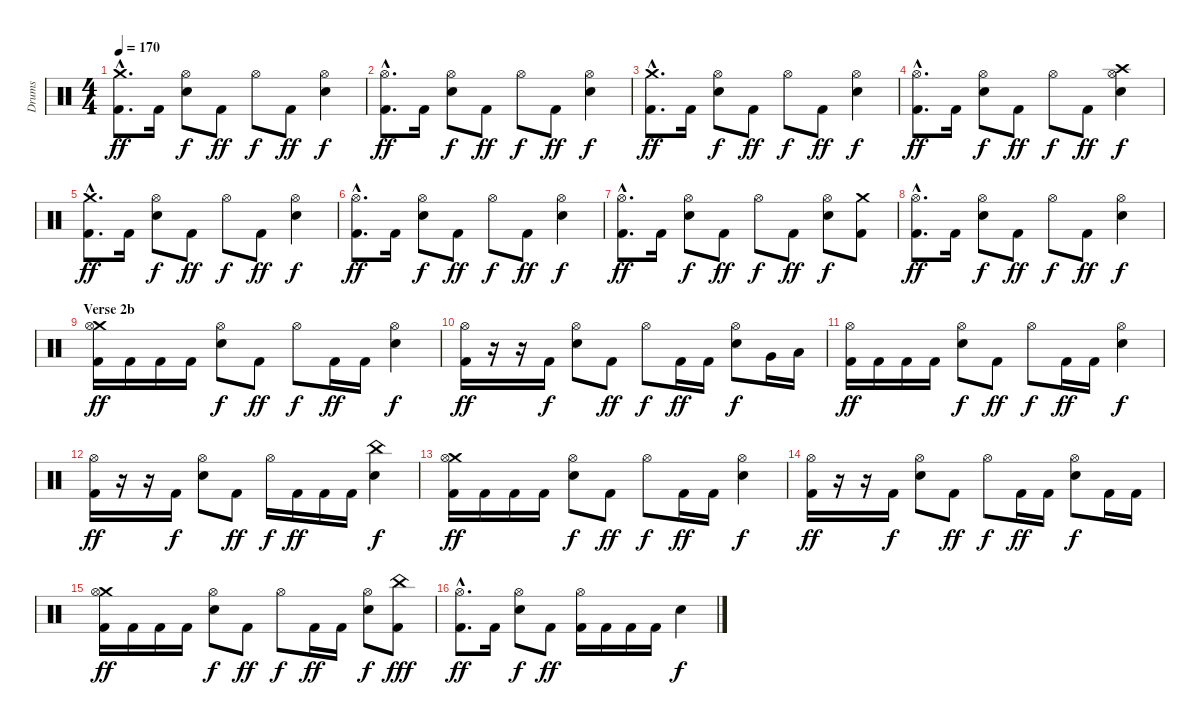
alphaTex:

\track ("Drums" "Drums") {instrument percussion}
\staff {score}
\articulation defaults
\ts (4 4)
\tempo 170
\clef neutral
\ks c
("Crash medium (hit)"{hac} "Kick (hit) 2"{hac}).8{d dy ff} "Kick (hit) 2".16 ("Hi-Hat (open)" "Snare (hit) 2").8{dy f} "Kick (hit) 2".8{dy ff} "Hi-Hat (open)".8{dy f} "Kick (hit) 2".8{dy ff} ("Hi-Hat (open)" "Snare (hit) 2").4{dy f} |
("Hi-Hat (open)"{hac} "Kick (hit) 2"{hac}).8{d dy ff} "Kick (hit) 2".16 ("Hi-Hat (open)" "Snare (hit) 2").8{dy f} "Kick (hit) 2".8{dy ff} "Hi-Hat (open)".8{dy f} "Kick (hit) 2".8{dy ff} ("Hi-Hat (open)" "Snare (hit) 2").4{dy f} |
("Crash medium (hit)"{hac} "Kick (hit) 2"{hac}).8{d dy ff} "Kick (hit) 2".16 ("Hi-Hat (open)" "Snare (hit) 2").8{dy f} "Kick (hit) 2".8{dy ff} "Hi-Hat (open)".8{dy f} "Kick (hit) 2".8{dy ff} ("Hi-Hat (open)" "Snare (hit) 2").4{dy f} |
("Hi-Hat (open)"{hac} "Kick (hit) 2"{hac}).8{d dy ff} "Kick (hit) 2".16 ("Hi-Hat (open)" "Snare (hit) 2").8{dy f} "Kick (hit) 2".8{dy ff} "Hi-Hat (open)".8{dy f} "Kick (hit) 2".8{dy ff} ("Crash high (hit)" "Hi-Hat (open)" "Snare (hit) 2").4{dy f} |
("Crash medium (hit)"{hac} "Kick (hit) 2"{hac}).8{d dy ff} "Kick (hit) 2".16 ("Hi-Hat (open)" "Snare (hit) 2").8{dy f} "Kick (hit) 2".8{dy ff} "Hi-Hat (open)".8{dy f} "Kick (hit) 2".8{dy ff} ("Hi-Hat (open)" "Snare (hit) 2").4{dy f} |
("Hi-Hat (open)"{hac} "Kick (hit) 2"{hac}).8{d dy ff} "Kick (hit) 2".16 ("Hi-Hat (open)" "Snare (hit) 2").8{dy f} "Kick (hit) 2".8{dy ff} "Hi-Hat (open)".8{dy f} "Kick (hit) 2".8{dy ff} ("Hi-Hat (open)" "Snare (hit) 2").4{dy f} |
("Hi-Hat (open)"{hac} "Kick (hit) 2"{hac}).8{d dy ff} "Kick (hit) 2".16 ("Hi-Hat (open)" "Snare (hit) 2").8{dy f} "Kick (hit) 2".8{dy ff} "Hi-Hat (open)".8{dy f} "Kick (hit) 2".8{dy ff} ("Hi-Hat (open)" "Snare (hit) 2").8{dy f} ("Crash medium (hit)" "Kick (hit) 2").8 |
("Hi-Hat (open)"{hac} "Kick (hit) 2"{hac}).8{d dy ff} "Kick (hit) 2".16 ("Hi-Hat (open)" "Snare (hit) 2").8{dy f} "Kick (hit) 2".8{dy ff} "Hi-Hat (open)".8{dy f} "Kick (hit) 2".8{dy ff} ("Hi-Hat (open)" "Snare (hit) 2").4{dy f} |
\section ("" "Verse 2b")
("Crash medium (hit)" "Hi-Hat (open)" "Kick (hit) 2").16{dy ff} "Kick (hit) 2".16 "Kick (hit) 2".16 "Kick (hit) 2".16 ("Hi-Hat (open)" "Snare (hit) 2").8{dy f} "Kick (hit) 2".8{dy ff} "Hi-Hat (open)".8{dy f} "Kick (hit) 2".16{dy ff} "Kick (hit) 2".16 ("Hi-Hat (open)" "Snare (hit) 2").4{dy f} |
("Hi-Hat (open)" "Kick (hit) 2").16{dy ff} r.16 r.16 "Kick (hit) 2".16{dy f} ("Hi-Hat (open)" "Snare (hit) 2").8 "Kick (hit) 2".8{dy ff} "Hi-Hat (open)".8{dy f} "Kick (hit) 2".16{dy ff} "Kick (hit) 2".16 ("Hi-Hat (open)" "Snare (hit) 2").8{dy f} "Very Low Tom (hit)".16 "Low Floor Tom (hit)".16 |
("Hi-Hat (open)" "Kick (hit) 2").16{dy ff} "Kick (hit) 2".16 "Kick (hit) 2".16 "Kick (hit) 2".16 ("Hi-Hat (open)" "Snare (hit) 2").8{dy f} "Kick (hit) 2".8{dy ff} "Hi-Hat (open)".8{dy f} "Kick (hit) 2".16{dy ff} "Kick (hit) 2".16 ("Hi-Hat (open)" "Snare (hit) 2").4{dy f} |
("Hi-Hat (open)" "Kick (hit) 2").16{dy ff} r.16 r.16 "Kick (hit) 2".16{dy f} ("Hi-Hat (open)" "Snare (hit) 2").8 "Kick (hit) 2".8{dy ff} "Hi-Hat (open)".16{dy f} "Kick (hit) 2".16{dy ff} "Kick (hit) 2".16 "Kick (hit) 2".16 ("China (hit)" "Snare (hit) 2").4{dy f} |
("Crash medium (hit)" "Hi-Hat (open)" "Kick (hit) 2").16{dy ff} "Kick (hit) 2".16 "Kick (hit) 2".16 "Kick (hit) 2".16 ("Hi-Hat (open)" "Snare (hit) 2").8{dy f} "Kick (hit) 2".8{dy ff} "Hi-Hat (open)".8{dy f} "Kick (hit) 2".16{dy ff} "Kick (hit) 2".16 ("Hi-Hat (open)" "Snare (hit) 2").4{dy f} |
("Hi-Hat (open)" "Kick (hit) 2").16{dy ff} r.16 r.16 "Kick (hit) 2".16{dy f} ("Hi-Hat (open)" "Snare (hit) 2").8 "Kick (hit) 2".8{dy ff} "Hi-Hat (open)".8{dy f} "Kick (hit) 2".16{dy ff} "Kick (hit) 2".16 ("Hi-Hat (open)" "Snare (hit) 2").8{dy f} "Kick (hit) 2".16 "Kick (hit) 2".16 |
("Crash medium (hit)" "Hi-Hat (open)" "Kick (hit) 2").16{dy ff} "Kick (hit) 2".16 "Kick (hit) 2".16 "Kick (hit) 2".16 ("Hi-Hat (open)" "Snare (hit) 2").8{dy f} "Kick (hit) 2".8{dy ff} "Hi-Hat (open)".8{dy f} "Kick (hit) 2".16{dy ff} "Kick (hit) 2".16 ("Hi-Hat (open)" "Snare (hit) 2").8{dy f} ("China (hit)" "Kick (hit) 2").8{dy fff} |
("Hi-Hat (open)"{hac} "Kick (hit) 2"{hac}).8{d dy ff} "Kick (hit) 2".16 ("Hi-Hat (open)" "Snare (hit) 2").8{dy f} "Kick (hit) 2".8{dy ff} ("Hi-Hat (open)" "Kick (hit) 2").16 "Kick (hit) 2".16 "Kick (hit) 2".16 "Kick (hit) 2".16 "Snare (hit) 2".4{dy f}
